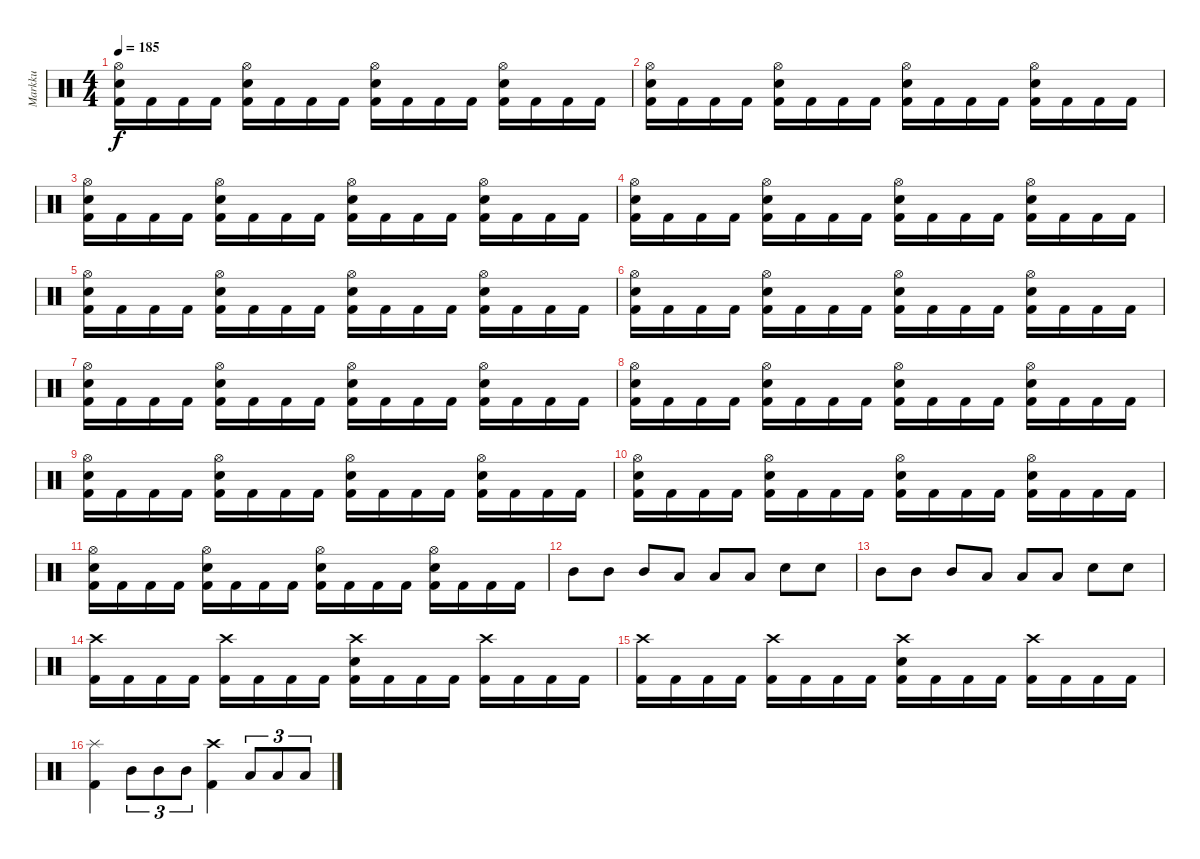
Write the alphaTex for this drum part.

\track ("Markku" "Markku") {instrument percussion}
\staff {score}
\articulation defaults
\ts (4 4)
\tempo 185
\clef neutral
\ks c
("Kick (hit) 2" "Snare (hit) 2" "Hi-Hat (open)").16{dy f} "Kick (hit) 2".16 "Kick (hit) 2".16 "Kick (hit) 2".16 ("Kick (hit) 2" "Snare (hit) 2" "Hi-Hat (open)").16 "Kick (hit) 2".16 "Kick (hit) 2".16 "Kick (hit) 2".16 ("Kick (hit) 2" "Snare (hit) 2" "Hi-Hat (open)").16 "Kick (hit) 2".16 "Kick (hit) 2".16 "Kick (hit) 2".16 ("Kick (hit) 2" "Snare (hit) 2" "Hi-Hat (open)").16 "Kick (hit) 2".16 "Kick (hit) 2".16 "Kick (hit) 2".16 |
("Kick (hit) 2" "Snare (hit) 2" "Hi-Hat (open)").16 "Kick (hit) 2".16 "Kick (hit) 2".16 "Kick (hit) 2".16 ("Kick (hit) 2" "Snare (hit) 2" "Hi-Hat (open)").16 "Kick (hit) 2".16 "Kick (hit) 2".16 "Kick (hit) 2".16 ("Kick (hit) 2" "Snare (hit) 2" "Hi-Hat (open)").16 "Kick (hit) 2".16 "Kick (hit) 2".16 "Kick (hit) 2".16 ("Kick (hit) 2" "Snare (hit) 2" "Hi-Hat (open)").16 "Kick (hit) 2".16 "Kick (hit) 2".16 "Kick (hit) 2".16 |
("Kick (hit) 2" "Snare (hit) 2" "Hi-Hat (open)").16 "Kick (hit) 2".16 "Kick (hit) 2".16 "Kick (hit) 2".16 ("Kick (hit) 2" "Snare (hit) 2" "Hi-Hat (open)").16 "Kick (hit) 2".16 "Kick (hit) 2".16 "Kick (hit) 2".16 ("Kick (hit) 2" "Snare (hit) 2" "Hi-Hat (open)").16 "Kick (hit) 2".16 "Kick (hit) 2".16 "Kick (hit) 2".16 ("Kick (hit) 2" "Snare (hit) 2" "Hi-Hat (open)").16 "Kick (hit) 2".16 "Kick (hit) 2".16 "Kick (hit) 2".16 |
("Kick (hit) 2" "Snare (hit) 2" "Hi-Hat (open)").16 "Kick (hit) 2".16 "Kick (hit) 2".16 "Kick (hit) 2".16 ("Kick (hit) 2" "Snare (hit) 2" "Hi-Hat (open)").16 "Kick (hit) 2".16 "Kick (hit) 2".16 "Kick (hit) 2".16 ("Kick (hit) 2" "Snare (hit) 2" "Hi-Hat (open)").16 "Kick (hit) 2".16 "Kick (hit) 2".16 "Kick (hit) 2".16 ("Kick (hit) 2" "Snare (hit) 2" "Hi-Hat (open)").16 "Kick (hit) 2".16 "Kick (hit) 2".16 "Kick (hit) 2".16 |
("Kick (hit) 2" "Snare (hit) 2" "Hi-Hat (open)").16 "Kick (hit) 2".16 "Kick (hit) 2".16 "Kick (hit) 2".16 ("Kick (hit) 2" "Snare (hit) 2" "Hi-Hat (open)").16 "Kick (hit) 2".16 "Kick (hit) 2".16 "Kick (hit) 2".16 ("Kick (hit) 2" "Snare (hit) 2" "Hi-Hat (open)").16 "Kick (hit) 2".16 "Kick (hit) 2".16 "Kick (hit) 2".16 ("Kick (hit) 2" "Snare (hit) 2" "Hi-Hat (open)").16 "Kick (hit) 2".16 "Kick (hit) 2".16 "Kick (hit) 2".16 |
("Kick (hit) 2" "Snare (hit) 2" "Hi-Hat (open)").16 "Kick (hit) 2".16 "Kick (hit) 2".16 "Kick (hit) 2".16 ("Kick (hit) 2" "Snare (hit) 2" "Hi-Hat (open)").16 "Kick (hit) 2".16 "Kick (hit) 2".16 "Kick (hit) 2".16 ("Kick (hit) 2" "Snare (hit) 2" "Hi-Hat (open)").16 "Kick (hit) 2".16 "Kick (hit) 2".16 "Kick (hit) 2".16 ("Kick (hit) 2" "Snare (hit) 2" "Hi-Hat (open)").16 "Kick (hit) 2".16 "Kick (hit) 2".16 "Kick (hit) 2".16 |
("Kick (hit) 2" "Snare (hit) 2" "Hi-Hat (open)").16 "Kick (hit) 2".16 "Kick (hit) 2".16 "Kick (hit) 2".16 ("Kick (hit) 2" "Snare (hit) 2" "Hi-Hat (open)").16 "Kick (hit) 2".16 "Kick (hit) 2".16 "Kick (hit) 2".16 ("Kick (hit) 2" "Snare (hit) 2" "Hi-Hat (open)").16 "Kick (hit) 2".16 "Kick (hit) 2".16 "Kick (hit) 2".16 ("Kick (hit) 2" "Snare (hit) 2" "Hi-Hat (open)").16 "Kick (hit) 2".16 "Kick (hit) 2".16 "Kick (hit) 2".16 |
("Kick (hit) 2" "Snare (hit) 2" "Hi-Hat (open)").16 "Kick (hit) 2".16 "Kick (hit) 2".16 "Kick (hit) 2".16 ("Kick (hit) 2" "Snare (hit) 2" "Hi-Hat (open)").16 "Kick (hit) 2".16 "Kick (hit) 2".16 "Kick (hit) 2".16 ("Kick (hit) 2" "Snare (hit) 2" "Hi-Hat (open)").16 "Kick (hit) 2".16 "Kick (hit) 2".16 "Kick (hit) 2".16 ("Kick (hit) 2" "Snare (hit) 2" "Hi-Hat (open)").16 "Kick (hit) 2".16 "Kick (hit) 2".16 "Kick (hit) 2".16 |
("Kick (hit) 2" "Snare (hit) 2" "Hi-Hat (open)").16 "Kick (hit) 2".16 "Kick (hit) 2".16 "Kick (hit) 2".16 ("Kick (hit) 2" "Snare (hit) 2" "Hi-Hat (open)").16 "Kick (hit) 2".16 "Kick (hit) 2".16 "Kick (hit) 2".16 ("Kick (hit) 2" "Snare (hit) 2" "Hi-Hat (open)").16 "Kick (hit) 2".16 "Kick (hit) 2".16 "Kick (hit) 2".16 ("Kick (hit) 2" "Snare (hit) 2" "Hi-Hat (open)").16 "Kick (hit) 2".16 "Kick (hit) 2".16 "Kick (hit) 2".16 |
("Kick (hit) 2" "Snare (hit) 2" "Hi-Hat (open)").16 "Kick (hit) 2".16 "Kick (hit) 2".16 "Kick (hit) 2".16 ("Kick (hit) 2" "Snare (hit) 2" "Hi-Hat (open)").16 "Kick (hit) 2".16 "Kick (hit) 2".16 "Kick (hit) 2".16 ("Kick (hit) 2" "Snare (hit) 2" "Hi-Hat (open)").16 "Kick (hit) 2".16 "Kick (hit) 2".16 "Kick (hit) 2".16 ("Kick (hit) 2" "Snare (hit) 2" "Hi-Hat (open)").16 "Kick (hit) 2".16 "Kick (hit) 2".16 "Kick (hit) 2".16 |
("Kick (hit) 2" "Snare (hit) 2" "Hi-Hat (open)").16 "Kick (hit) 2".16 "Kick (hit) 2".16 "Kick (hit) 2".16 ("Kick (hit) 2" "Snare (hit) 2" "Hi-Hat (open)").16 "Kick (hit) 2".16 "Kick (hit) 2".16 "Kick (hit) 2".16 ("Kick (hit) 2" "Snare (hit) 2" "Hi-Hat (open)").16 "Kick (hit) 2".16 "Kick (hit) 2".16 "Kick (hit) 2".16 ("Kick (hit) 2" "Snare (hit) 2" "Hi-Hat (open)").16 "Kick (hit) 2".16 "Kick (hit) 2".16 "Kick (hit) 2".16 |
"Mid Tom (hit)".8 "Mid Tom (hit)".8 "Mid Tom (hit)".8 "Low Tom (hit)".8 "Low Tom (hit)".8 "Low Tom (hit)".8 "Snare (hit) 2".8 "Snare (hit) 2".8 |
"Mid Tom (hit)".8 "Mid Tom (hit)".8 "Mid Tom (hit)".8 "Low Tom (hit)".8 "Low Tom (hit)".8 "Low Tom (hit)".8 "Snare (hit) 2".8 "Snare (hit) 2".8 |
("Kick (hit) 2" "Crash high (hit)").16 "Kick (hit) 2".16 "Kick (hit) 2".16 "Kick (hit) 2".16 ("Kick (hit) 2" "Crash high (hit)").16 "Kick (hit) 2".16 "Kick (hit) 2".16 "Kick (hit) 2".16 ("Kick (hit) 2" "Snare (hit) 2" "Crash high (hit)").16 "Kick (hit) 2".16 "Kick (hit) 2".16 "Kick (hit) 2".16 ("Kick (hit) 2" "Crash high (hit)").16 "Kick (hit) 2".16 "Kick (hit) 2".16 "Kick (hit) 2".16 |
("Kick (hit) 2" "Crash high (hit)").16 "Kick (hit) 2".16 "Kick (hit) 2".16 "Kick (hit) 2".16 ("Kick (hit) 2" "Crash high (hit)").16 "Kick (hit) 2".16 "Kick (hit) 2".16 "Kick (hit) 2".16 ("Kick (hit) 2" "Snare (hit) 2" "Crash high (hit)").16 "Kick (hit) 2".16 "Kick (hit) 2".16 "Kick (hit) 2".16 ("Kick (hit) 2" "Crash high (hit)").16 "Kick (hit) 2".16 "Kick (hit) 2".16 "Kick (hit) 2".16 |
("Kick (hit) 2" "Splash (hit)").4 "Mid Tom (hit)".8{tu (3 2)} "Mid Tom (hit)".8{tu (3 2)} "Mid Tom (hit)".8{tu (3 2)} ("Kick (hit) 2" "Crash high (hit)").4 "Low Tom (hit)".8{tu (3 2)} "Low Tom (hit)".8{tu (3 2)} "Low Tom (hit)".8{tu (3 2)}
